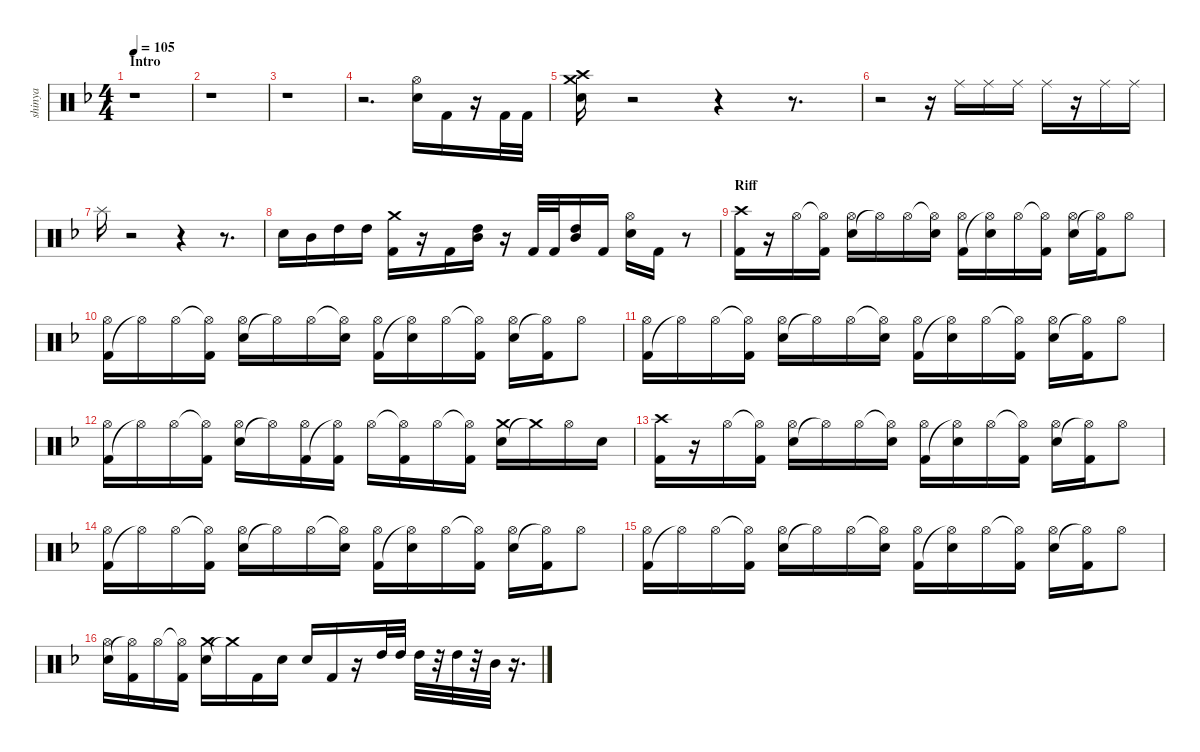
\defaultSystemsLayout 4
\hideDynamics
\bracketExtendMode nobrackets
\otherSystemsTrackNameOrientation horizontal
\track ("Shinya" "shinya") {defaultSystemsLayout 4 instrument percussion}
\staff {score}
\articulation defaults
\ts (4 4)
\beaming (8 2 2 2 2)
\section ("" "Intro")
\tempo 105
\clef neutral
\scale
1.11621
\ks dminor
r.1{dy fff} |
\scale
0.961263 r.1 |
\scale
0.961263 r.1 |
\scale
0.961263 r.2{d} ("Snare (hit) 2"{acc forcenatural} "Hi-Hat (open)"{acc #}).16 "Kick (hit) 2"{acc forcenatural}.16 r.16 "Kick (hit) 2"{acc forcenatural}.32 "Kick (hit) 2"{acc forcenatural}.32 |
\scale
1.05921 ("Snare (hit) 2"{acc forcenatural} "Crash high (hit)"{acc #} "Crash medium (hit)"{acc forcenatural}).16 r.2 r.4 r.8{d} |
\scale
0.974368 r.2 r.16 "Ride (middle)"{acc #}.16{dy ff} "Ride (middle)"{acc #}.16{dy fff} "Ride (middle)"{acc #}.16{dy ff} "Ride (middle)"{acc #}.16{dy fff} r.16 "Ride (middle)"{acc #}.16 "Ride (middle)"{acc #}.16 |
\scale
0.974368 "Splash (hit)"{acc forcenatural}.16 r.2 r.4 r.8{d} |
\scale
0.992053 "Snare (hit) 2"{acc forcenatural}.16 "Mid Tom (hit)"{acc forcenatural}.16{dy f} "High Tom (hit)"{acc forcenatural}.16{dy fff} "High Tom (hit)"{acc forcenatural}.16 ("Kick (hit) 2"{acc forcenatural} "Crash medium (hit)"{acc forcenatural}).16 r.16 "Kick (hit) 2"{acc forcenatural}.16 ("Mid Tom (hit)"{acc forcenatural} "High Tom (hit)"{acc forcenatural}).16 r.16 "Kick (hit) 2"{acc forcenatural}.32 "Kick (hit) 2"{acc forcenatural}.32 ("Mid Tom (hit)"{acc forcenatural} "High Tom (hit)"{acc forcenatural}).16 "Kick (hit) 2"{acc forcenatural}.16 ("Snare (hit) 2"{acc forcenatural} "Hi-Hat (open)"{acc #}).16 "Kick (hit) 2"{acc forcenatural}.16 r.8 |
\section ("" "Riff")
\scale
1.06363 ("Kick (hit) 2"{acc forcenatural} "Crash high (hit)"{acc #}).16 r.16 "Hi-Hat (open)"{acc #}.16 ("Hi-Hat (open)"{t acc #} "Kick (hit) 2"{acc forcenatural}).16 ("Snare (hit) 2"{acc forcenatural} "Hi-Hat (open)"{acc #}).16 "Hi-Hat (open)"{t acc #}.16 "Hi-Hat (open)"{acc #}.16 ("Hi-Hat (open)"{t acc #} "Snare (hit) 2"{acc forcenatural}).16 ("Kick (hit) 2"{acc forcenatural} "Hi-Hat (open)"{acc #}).16 ("Hi-Hat (open)"{t acc #} "Snare (hit) 2"{acc forcenatural}).16 "Hi-Hat (open)"{acc #}.16{dy ff} ("Hi-Hat (open)"{t acc #} "Kick (hit) 2"{acc forcenatural}).16 ("Snare (hit) 2"{acc forcenatural} "Hi-Hat (open)"{acc #}).16{dy fff} ("Hi-Hat (open)"{t acc #} "Kick (hit) 2"{acc forcenatural}).16 "Hi-Hat (open)"{acc #}.8 |
\scale
0.97879 ("Kick (hit) 2"{acc forcenatural} "Hi-Hat (open)"{acc #}).16 "Hi-Hat (open)"{t acc #}.16 "Hi-Hat (open)"{acc #}.16{dy ff} ("Hi-Hat (open)"{t acc #} "Kick (hit) 2"{acc forcenatural}).16 ("Snare (hit) 2"{acc forcenatural} "Hi-Hat (open)"{acc #}).16{dy fff} "Hi-Hat (open)"{t acc #}.16 "Hi-Hat (open)"{acc #}.16 ("Hi-Hat (open)"{t acc #} "Snare (hit) 2"{acc forcenatural}).16 ("Kick (hit) 2"{acc forcenatural} "Hi-Hat (open)"{acc #}).16 ("Hi-Hat (open)"{t acc #} "Snare (hit) 2"{acc forcenatural}).16 "Hi-Hat (open)"{acc #}.16 ("Hi-Hat (open)"{t acc #} "Kick (hit) 2"{acc forcenatural}).16 ("Snare (hit) 2"{acc forcenatural} "Hi-Hat (open)"{acc #}).16 ("Hi-Hat (open)"{t acc #} "Kick (hit) 2"{acc forcenatural}).16 "Hi-Hat (open)"{acc #}.8 |
\scale
0.97879 ("Kick (hit) 2"{acc forcenatural} "Hi-Hat (open)"{acc #}).16 "Hi-Hat (open)"{t acc #}.16 "Hi-Hat (open)"{acc #}.16 ("Hi-Hat (open)"{t acc #} "Kick (hit) 2"{acc forcenatural}).16 ("Snare (hit) 2"{acc forcenatural} "Hi-Hat (open)"{acc #}).16 "Hi-Hat (open)"{t acc #}.16 "Hi-Hat (open)"{acc #}.16{dy ff} ("Hi-Hat (open)"{t acc #} "Snare (hit) 2"{acc forcenatural}).16 ("Kick (hit) 2"{acc forcenatural} "Hi-Hat (open)"{acc #}).16{dy fff} ("Hi-Hat (open)"{t acc #} "Snare (hit) 2"{acc forcenatural}).16 "Hi-Hat (open)"{acc #}.16 ("Hi-Hat (open)"{t acc #} "Kick (hit) 2"{acc forcenatural}).16 ("Snare (hit) 2"{acc forcenatural} "Hi-Hat (open)"{acc #}).16 ("Hi-Hat (open)"{t acc #} "Kick (hit) 2"{acc forcenatural}).16 "Hi-Hat (open)"{acc #}.8{dy ff} |
\scale
0.97879 ("Kick (hit) 2"{acc forcenatural} "Hi-Hat (open)"{acc #}).16{dy fff} "Hi-Hat (open)"{t acc #}.16 "Hi-Hat (open)"{acc #}.16{dy ff} ("Hi-Hat (open)"{t acc #} "Kick (hit) 2"{acc forcenatural}).16 ("Snare (hit) 2"{acc forcenatural} "Hi-Hat (open)"{acc #}).16{dy fff} "Hi-Hat (open)"{t acc #}.16 ("Kick (hit) 2"{acc forcenatural} "Hi-Hat (open)"{acc #}).16 ("Hi-Hat (open)"{t acc #} "Kick (hit) 2"{acc forcenatural}).16{dy ff} "Hi-Hat (open)"{acc #}.16{dy fff} ("Hi-Hat (open)"{t acc #} "Kick (hit) 2"{acc forcenatural}).16 "Hi-Hat (open)"{acc #}.16 ("Hi-Hat (open)"{t acc #} "Kick (hit) 2"{acc forcenatural}).16 ("Snare (hit) 2"{acc forcenatural} "Crash medium (hit)"{acc forcenatural}).16 "Crash medium (hit)"{t acc forcenatural}.16 "Hi-Hat (open)"{acc #}.16 "Snare (hit) 2"{acc forcenatural}.16{dy f} |
\scale
1.05921 ("Kick (hit) 2"{acc forcenatural} "Crash high (hit)"{acc #}).16{dy fff} r.16 "Hi-Hat (open)"{acc #}.16 ("Hi-Hat (open)"{t acc #} "Kick (hit) 2"{acc forcenatural}).16 ("Snare (hit) 2"{acc forcenatural} "Hi-Hat (open)"{acc #}).16 "Hi-Hat (open)"{t acc #}.16 "Hi-Hat (open)"{acc #}.16 ("Hi-Hat (open)"{t acc #} "Snare (hit) 2"{acc forcenatural}).16 ("Kick (hit) 2"{acc forcenatural} "Hi-Hat (open)"{acc #}).16 ("Hi-Hat (open)"{t acc #} "Snare (hit) 2"{acc forcenatural}).16 "Hi-Hat (open)"{acc #}.16{dy ff} ("Hi-Hat (open)"{t acc #} "Kick (hit) 2"{acc forcenatural}).16 ("Snare (hit) 2"{acc forcenatural} "Hi-Hat (open)"{acc #}).16{dy fff} ("Hi-Hat (open)"{t acc #} "Kick (hit) 2"{acc forcenatural}).16 "Hi-Hat (open)"{acc #}.8 |
\scale
0.974368 ("Kick (hit) 2"{acc forcenatural} "Hi-Hat (open)"{acc #}).16 "Hi-Hat (open)"{t acc #}.16 "Hi-Hat (open)"{acc #}.16{dy ff} ("Hi-Hat (open)"{t acc #} "Kick (hit) 2"{acc forcenatural}).16 ("Snare (hit) 2"{acc forcenatural} "Hi-Hat (open)"{acc #}).16{dy fff} "Hi-Hat (open)"{t acc #}.16 "Hi-Hat (open)"{acc #}.16 ("Hi-Hat (open)"{t acc #} "Snare (hit) 2"{acc forcenatural}).16 ("Kick (hit) 2"{acc forcenatural} "Hi-Hat (open)"{acc #}).16 ("Hi-Hat (open)"{t acc #} "Snare (hit) 2"{acc forcenatural}).16 "Hi-Hat (open)"{acc #}.16 ("Hi-Hat (open)"{t acc #} "Kick (hit) 2"{acc forcenatural}).16 ("Snare (hit) 2"{acc forcenatural} "Hi-Hat (open)"{acc #}).16 ("Hi-Hat (open)"{t acc #} "Kick (hit) 2"{acc forcenatural}).16 "Hi-Hat (open)"{acc #}.8 |
\scale
0.974368 ("Kick (hit) 2"{acc forcenatural} "Hi-Hat (open)"{acc #}).16 "Hi-Hat (open)"{t acc #}.16 "Hi-Hat (open)"{acc #}.16 ("Hi-Hat (open)"{t acc #} "Kick (hit) 2"{acc forcenatural}).16 ("Snare (hit) 2"{acc forcenatural} "Hi-Hat (open)"{acc #}).16 "Hi-Hat (open)"{t acc #}.16 "Hi-Hat (open)"{acc #}.16{dy ff} ("Hi-Hat (open)"{t acc #} "Snare (hit) 2"{acc forcenatural}).16 ("Kick (hit) 2"{acc forcenatural} "Hi-Hat (open)"{acc #}).16{dy fff} ("Hi-Hat (open)"{t acc #} "Snare (hit) 2"{acc forcenatural}).16 "Hi-Hat (open)"{acc #}.16 ("Hi-Hat (open)"{t acc #} "Kick (hit) 2"{acc forcenatural}).16 ("Snare (hit) 2"{acc forcenatural} "Hi-Hat (open)"{acc #}).16 ("Hi-Hat (open)"{t acc #} "Kick (hit) 2"{acc forcenatural}).16 "Hi-Hat (open)"{acc #}.8{dy ff} |
\scale
0.992053 ("Snare (hit) 2"{acc forcenatural} "Hi-Hat (open)"{acc #}).16{dy fff} ("Hi-Hat (open)"{t acc #} "Kick (hit) 2"{acc forcenatural}).16 "Hi-Hat (open)"{acc #}.16{dy ff} ("Hi-Hat (open)"{t acc #} "Kick (hit) 2"{acc forcenatural}).16 ("Snare (hit) 2"{acc forcenatural} "Crash medium (hit)"{acc forcenatural}).16{dy fff} "Crash medium (hit)"{t acc forcenatural}.16 "Kick (hit) 2"{acc forcenatural}.16 "Snare (hit) 2"{acc forcenatural}.16 "Snare (hit) 2"{acc forcenatural}.16 "Kick (hit) 2"{acc forcenatural}.16 r.16 "High Tom (hit)"{acc forcenatural}.32 "High Tom (hit)"{acc forcenatural}.32 "High Tom (hit)"{acc forcenatural}.32 r.32 "High Tom (hit)"{acc forcenatural}.32 r.32 "Mid Tom (hit)"{acc forcenatural}.32 r.16{d}
